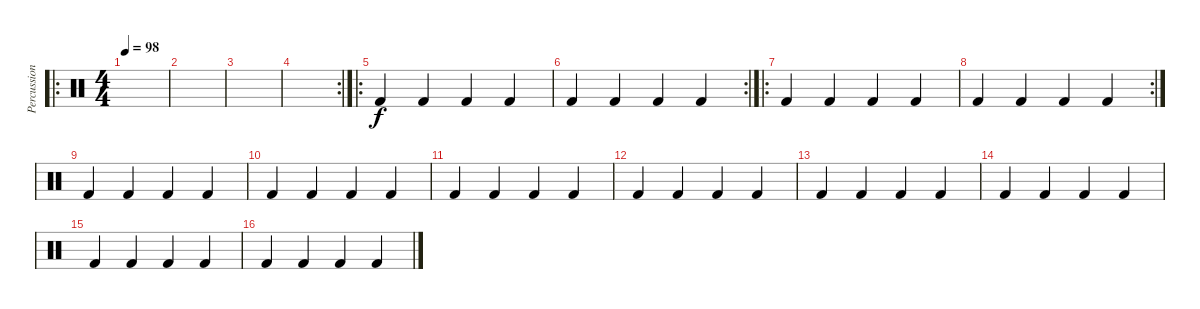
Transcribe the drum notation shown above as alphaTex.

\track ("Percussion" "Percussion") {instrument percussion}
\staff {score}
\articulation defaults
\ro
\ts (4 4)
\tempo 98
\clef neutral
\ks c
|
|
|
\rc 2
|
\ro "Kick (hit) 2".4 "Kick (hit) 2".4 "Kick (hit) 2".4 "Kick (hit) 2".4
|
\rc 2 "Kick (hit) 2".4 "Kick (hit) 2".4 "Kick (hit) 2".4 "Kick (hit) 2".4
|
\ro "Kick (hit) 2".4 "Kick (hit) 2".4 "Kick (hit) 2".4 "Kick (hit) 2".4
|
\rc 2 "Kick (hit) 2".4 "Kick (hit) 2".4 "Kick (hit) 2".4 "Kick (hit) 2".4
|
"Kick (hit) 2".4 "Kick (hit) 2".4 "Kick (hit) 2".4 "Kick (hit) 2".4 |
"Kick (hit) 2".4 "Kick (hit) 2".4 "Kick (hit) 2".4 "Kick (hit) 2".4 |
"Kick (hit) 2".4 "Kick (hit) 2".4 "Kick (hit) 2".4 "Kick (hit) 2".4 |
"Kick (hit) 2".4 "Kick (hit) 2".4 "Kick (hit) 2".4 "Kick (hit) 2".4 |
"Kick (hit) 2".4 "Kick (hit) 2".4 "Kick (hit) 2".4 "Kick (hit) 2".4 |
"Kick (hit) 2".4 "Kick (hit) 2".4 "Kick (hit) 2".4 "Kick (hit) 2".4 |
"Kick (hit) 2".4 "Kick (hit) 2".4 "Kick (hit) 2".4 "Kick (hit) 2".4 |
"Kick (hit) 2".4 "Kick (hit) 2".4 "Kick (hit) 2".4 "Kick (hit) 2".4
